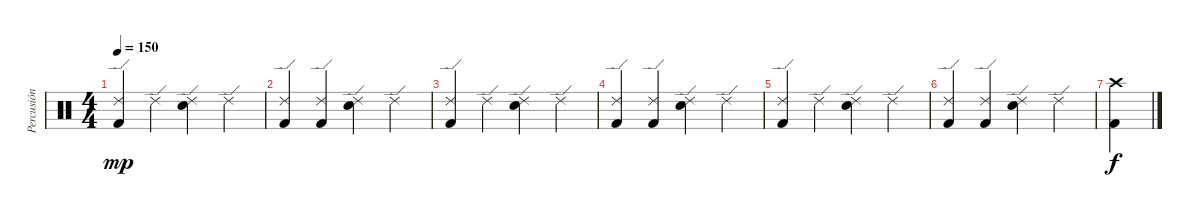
\track ("Percusión" "Percusión") {instrument percussion}
\staff {score}
\articulation defaults
\ts (4 4)
\tempo 150
\clef neutral
\ks c
("Ride (edge) 2" "Kick (hit) 2").4{dy mp} "Ride (edge) 2".4 ("Ride (edge) 2" "Snare (hit) 2").4 "Ride (edge) 2".4 |
("Ride (edge) 2" "Kick (hit) 2").4 ("Ride (edge) 2" "Kick (hit) 2").4 ("Ride (edge) 2" "Snare (hit) 2").4 "Ride (edge) 2".4 |
("Ride (edge) 2" "Kick (hit) 2").4 "Ride (edge) 2".4 ("Ride (edge) 2" "Snare (hit) 2").4 "Ride (edge) 2".4 |
("Ride (edge) 2" "Kick (hit) 2").4 ("Ride (edge) 2" "Kick (hit) 2").4 ("Ride (edge) 2" "Snare (hit) 2").4 "Ride (edge) 2".4 |
("Ride (edge) 2" "Kick (hit) 2").4 "Ride (edge) 2".4 ("Ride (edge) 2" "Snare (hit) 2").4 "Ride (edge) 2".4 |
("Ride (edge) 2" "Kick (hit) 2").4 ("Ride (edge) 2" "Kick (hit) 2").4 ("Ride (edge) 2" "Snare (hit) 2").4 "Ride (edge) 2".4 |
("Crash high (hit)" "Kick (hit) 2").4{dy f}
